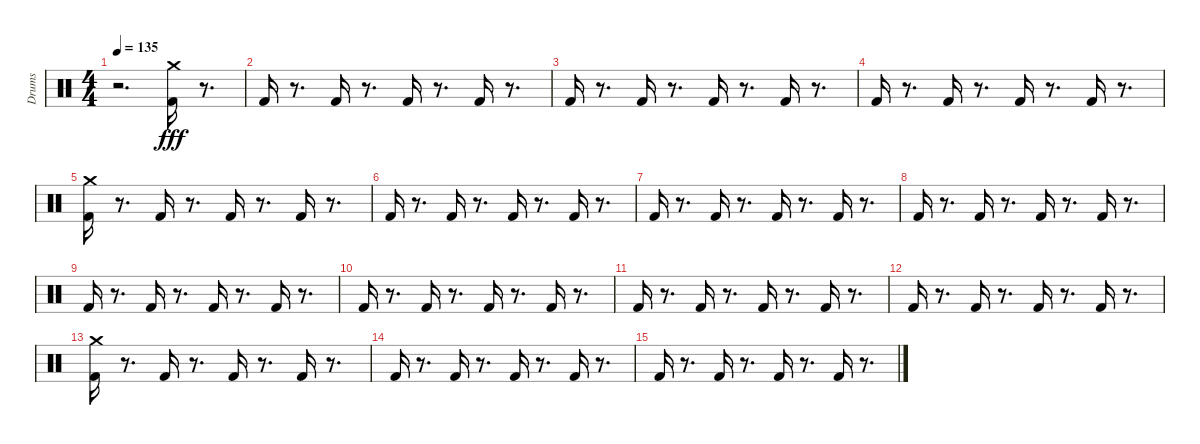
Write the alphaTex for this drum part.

\track ("Drums" "Drums") {instrument percussion}
\staff {score}
\articulation defaults
\ts (4 4)
\tempo 135
\clef neutral
\ks c
r.2{d dy fff} ("Crash medium (hit)" "Kick (hit) 2").16 r.8{d} |
"Kick (hit) 2".16 r.8{d} "Kick (hit) 2".16 r.8{d} "Kick (hit) 2".16 r.8{d} "Kick (hit) 2".16 r.8{d} |
"Kick (hit) 2".16 r.8{d} "Kick (hit) 2".16 r.8{d} "Kick (hit) 2".16 r.8{d} "Kick (hit) 2".16 r.8{d} |
"Kick (hit) 2".16 r.8{d} "Kick (hit) 2".16 r.8{d} "Kick (hit) 2".16 r.8{d} "Kick (hit) 2".16 r.8{d} |
("Kick (hit) 2" "Crash medium (hit)").16 r.8{d} "Kick (hit) 2".16 r.8{d} "Kick (hit) 2".16 r.8{d} "Kick (hit) 2".16 r.8{d} |
"Kick (hit) 2".16 r.8{d} "Kick (hit) 2".16 r.8{d} "Kick (hit) 2".16 r.8{d} "Kick (hit) 2".16 r.8{d} |
"Kick (hit) 2".16 r.8{d} "Kick (hit) 2".16 r.8{d} "Kick (hit) 2".16 r.8{d} "Kick (hit) 2".16 r.8{d} |
"Kick (hit) 2".16 r.8{d} "Kick (hit) 2".16 r.8{d} "Kick (hit) 2".16 r.8{d} "Kick (hit) 2".16 r.8{d} |
"Kick (hit) 2".16 r.8{d} "Kick (hit) 2".16 r.8{d} "Kick (hit) 2".16 r.8{d} "Kick (hit) 2".16 r.8{d} |
"Kick (hit) 2".16 r.8{d} "Kick (hit) 2".16 r.8{d} "Kick (hit) 2".16 r.8{d} "Kick (hit) 2".16 r.8{d} |
"Kick (hit) 2".16 r.8{d} "Kick (hit) 2".16 r.8{d} "Kick (hit) 2".16 r.8{d} "Kick (hit) 2".16 r.8{d} |
"Kick (hit) 2".16 r.8{d} "Kick (hit) 2".16 r.8{d} "Kick (hit) 2".16 r.8{d} "Kick (hit) 2".16 r.8{d} |
("Kick (hit) 2" "Crash medium (hit)").16 r.8{d} "Kick (hit) 2".16 r.8{d} "Kick (hit) 2".16 r.8{d} "Kick (hit) 2".16 r.8{d} |
"Kick (hit) 2".16 r.8{d} "Kick (hit) 2".16 r.8{d} "Kick (hit) 2".16 r.8{d} "Kick (hit) 2".16 r.8{d} |
"Kick (hit) 2".16 r.8{d} "Kick (hit) 2".16 r.8{d} "Kick (hit) 2".16 r.8{d} "Kick (hit) 2".16 r.8{d}
